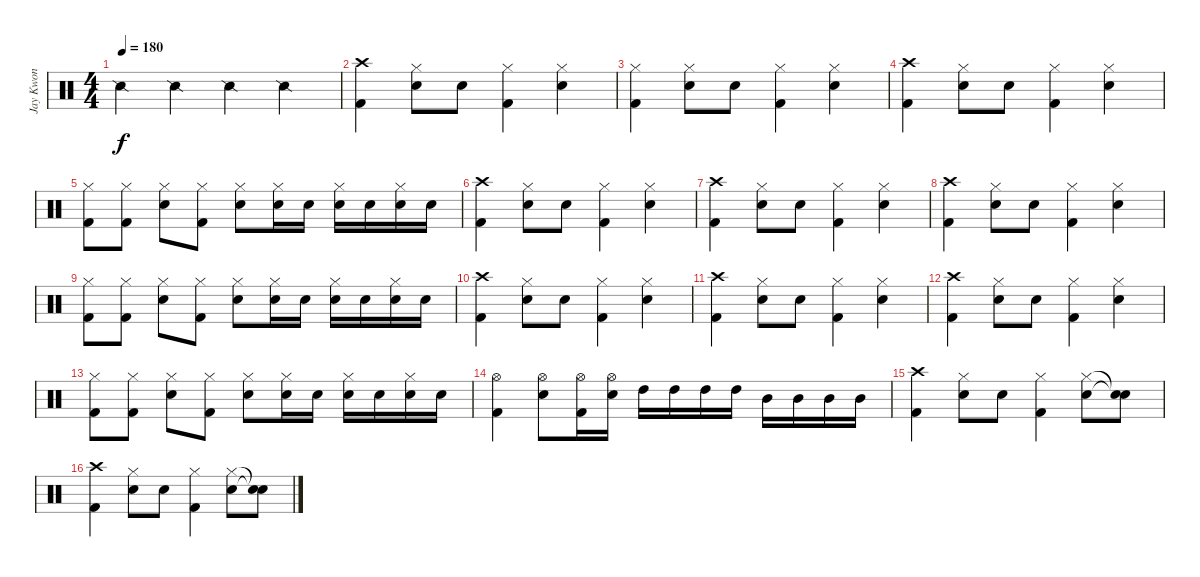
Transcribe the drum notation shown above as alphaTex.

\track ("Jay Kwon" "Jay Kwon") {instrument percussion}
\staff {score}
\articulation defaults
\ts (4 4)
\tempo 180
\clef neutral
\ks c "Snare (side stick) 2".4{dy f} "Snare (side stick) 2".4 "Snare (side stick) 2".4 "Snare (side stick) 2".4
|
("Crash high (hit)" "Kick (hit) 2").4 ("Hi-Hat (closed)" "Electric Snare (hit)").8 "Electric Snare (hit)".8 ("Hi-Hat (closed)" "Kick (hit) 2").4 ("Hi-Hat (closed)" "Electric Snare (hit)").4 |
("Hi-Hat (closed)" "Kick (hit) 2").4 ("Hi-Hat (closed)" "Electric Snare (hit)").8 "Electric Snare (hit)".8 ("Hi-Hat (closed)" "Kick (hit) 2").4 ("Hi-Hat (closed)" "Electric Snare (hit)").4 |
("Crash high (hit)" "Kick (hit) 2").4 ("Hi-Hat (closed)" "Electric Snare (hit)").8 "Electric Snare (hit)".8 ("Hi-Hat (closed)" "Kick (hit) 2").4 ("Hi-Hat (closed)" "Electric Snare (hit)").4 |
("Hi-Hat (closed)" "Kick (hit) 2").8 ("Hi-Hat (closed)" "Kick (hit) 2").8 ("Hi-Hat (closed)" "Electric Snare (hit)").8 ("Hi-Hat (closed)" "Kick (hit) 2").8 ("Hi-Hat (closed)" "Electric Snare (hit)").8 ("Hi-Hat (closed)" "Electric Snare (hit)").16 "Electric Snare (hit)".16 ("Hi-Hat (closed)" "Electric Snare (hit)").16 "Electric Snare (hit)".16 ("Hi-Hat (closed)" "Electric Snare (hit)").16 "Electric Snare (hit)".16 |
("Crash high (hit)" "Kick (hit) 2").4 ("Hi-Hat (closed)" "Electric Snare (hit)").8 "Electric Snare (hit)".8 ("Hi-Hat (closed)" "Kick (hit) 2").4 ("Hi-Hat (closed)" "Electric Snare (hit)").4 |
("Crash high (hit)" "Kick (hit) 2").4 ("Hi-Hat (closed)" "Electric Snare (hit)").8 "Electric Snare (hit)".8 ("Hi-Hat (closed)" "Kick (hit) 2").4 ("Hi-Hat (closed)" "Electric Snare (hit)").4 |
("Crash high (hit)" "Kick (hit) 2").4 ("Hi-Hat (closed)" "Electric Snare (hit)").8 "Electric Snare (hit)".8 ("Hi-Hat (closed)" "Kick (hit) 2").4 ("Hi-Hat (closed)" "Electric Snare (hit)").4 |
("Hi-Hat (closed)" "Kick (hit) 2").8 ("Hi-Hat (closed)" "Kick (hit) 2").8 ("Hi-Hat (closed)" "Electric Snare (hit)").8 ("Hi-Hat (closed)" "Kick (hit) 2").8 ("Hi-Hat (closed)" "Electric Snare (hit)").8 ("Hi-Hat (closed)" "Electric Snare (hit)").16 "Electric Snare (hit)".16 ("Hi-Hat (closed)" "Electric Snare (hit)").16 "Electric Snare (hit)".16 ("Hi-Hat (closed)" "Electric Snare (hit)").16 "Electric Snare (hit)".16 |
("Crash high (hit)" "Kick (hit) 2").4 ("Hi-Hat (closed)" "Electric Snare (hit)").8 "Electric Snare (hit)".8 ("Hi-Hat (closed)" "Kick (hit) 2").4 ("Hi-Hat (closed)" "Electric Snare (hit)").4 |
("Crash high (hit)" "Kick (hit) 2").4 ("Hi-Hat (closed)" "Electric Snare (hit)").8 "Electric Snare (hit)".8 ("Hi-Hat (closed)" "Kick (hit) 2").4 ("Hi-Hat (closed)" "Electric Snare (hit)").4 |
("Crash high (hit)" "Kick (hit) 2").4 ("Hi-Hat (closed)" "Electric Snare (hit)").8 "Electric Snare (hit)".8 ("Hi-Hat (closed)" "Kick (hit) 2").4 ("Hi-Hat (closed)" "Electric Snare (hit)").4 |
("Hi-Hat (closed)" "Kick (hit) 2").8 ("Hi-Hat (closed)" "Kick (hit) 2").8 ("Hi-Hat (closed)" "Electric Snare (hit)").8 ("Hi-Hat (closed)" "Kick (hit) 2").8 ("Hi-Hat (closed)" "Electric Snare (hit)").8 ("Hi-Hat (closed)" "Electric Snare (hit)").16 "Electric Snare (hit)".16 ("Hi-Hat (closed)" "Electric Snare (hit)").16 "Electric Snare (hit)".16 ("Hi-Hat (closed)" "Electric Snare (hit)").16 "Electric Snare (hit)".16 |
("Hi-Hat (open)" "Kick (hit) 2").4 ("Hi-Hat (open)" "Electric Snare (hit)").8 ("Hi-Hat (open)" "Kick (hit) 2").16 ("Hi-Hat (open)" "Electric Snare (hit)").16 "High Tom (hit)".16 "High Tom (hit)".16 "High Tom (hit)".16 "High Tom (hit)".16 "Mid Tom (hit)".16 "Mid Tom (hit)".16 "Mid Tom (hit)".16 "Mid Tom (hit)".16 |
("Crash high (hit)" "Kick (hit) 2").4 ("Hi-Hat (closed)" "Electric Snare (hit)").8 "Electric Snare (hit)".8 ("Hi-Hat (closed)" "Kick (hit) 2").4 ("Hi-Hat (closed)" "Electric Snare (hit)").8 ("Snare (hit)"{t} "Snare (hit)"{t}).8 |
("Crash high (hit)" "Kick (hit) 2").4 ("Hi-Hat (closed)" "Electric Snare (hit)").8 "Electric Snare (hit)".8 ("Hi-Hat (closed)" "Kick (hit) 2").4 ("Hi-Hat (closed)" "Electric Snare (hit)").8 ("Snare (hit)"{t} "Snare (hit)"{t}).8
